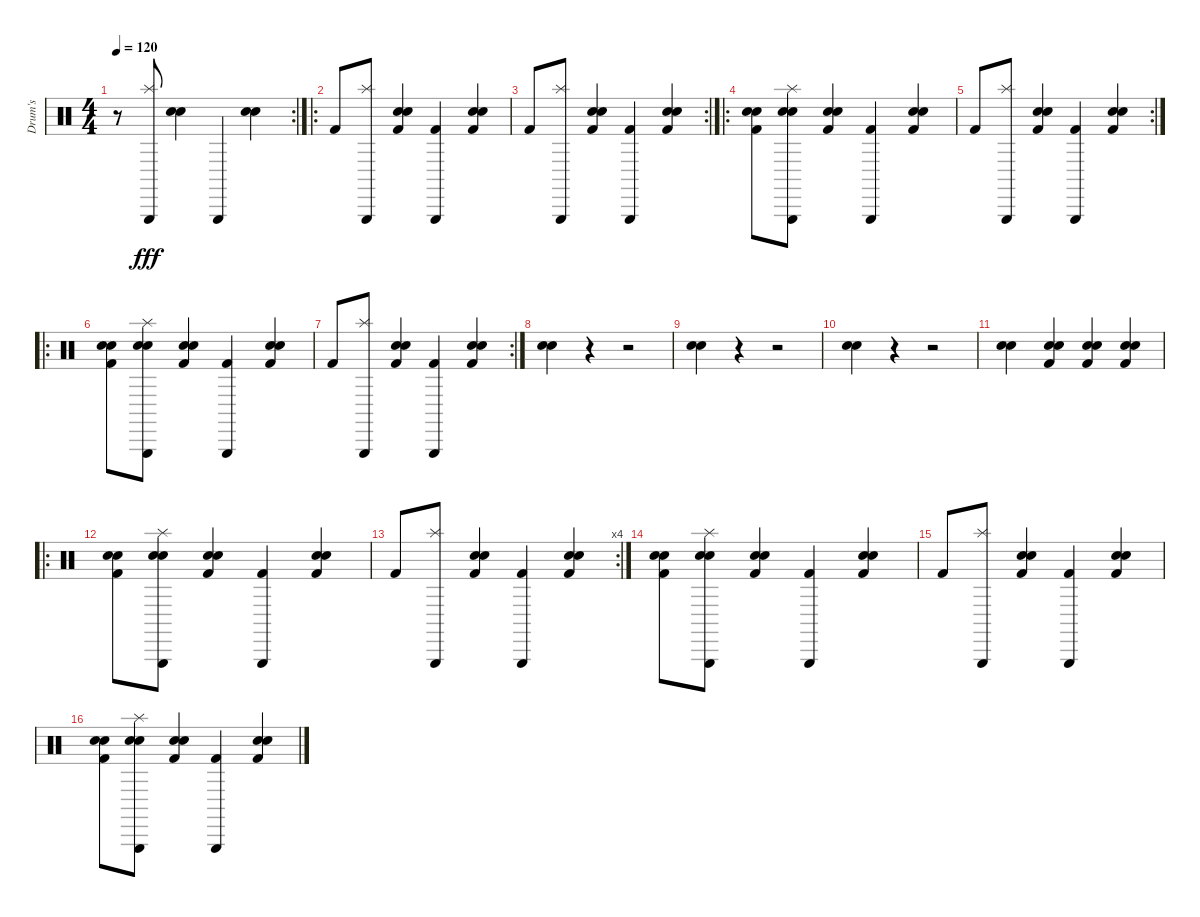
\track ("Drum's" "Drum's") {instrument percussion}
\staff {score}
\articulation defaults
\rc 2
\ts (4 4)
\tempo 120
\clef neutral
\ks c
r.8{dy fff} ("Splash (hit)" "Triangle (hit)").8 ("Hand Clap (hit)" "Snare (hit) 2").4 "Triangle (hit)".4 ("Hand Clap (hit)" "Snare (hit) 2").4 |
\ro "Kick (hit) 2".8
("Splash (hit)" "Triangle (hit)").8 ("Hand Clap (hit)" "Snare (hit) 2" "Kick (hit) 2").4 ("Triangle (hit)" "Kick (hit) 2").4 ("Hand Clap (hit)" "Snare (hit) 2" "Kick (hit) 2").4 |
\rc 2 "Kick (hit) 2".8
("Splash (hit)" "Triangle (hit)").8 ("Hand Clap (hit)" "Snare (hit) 2" "Kick (hit) 2").4 ("Triangle (hit)" "Kick (hit) 2").4 ("Hand Clap (hit)" "Snare (hit) 2" "Kick (hit) 2").4 |
\ro
("Hand Clap (hit)" "Snare (hit) 2" "Kick (hit) 2").8 ("Splash (hit)" "Triangle (hit)" "Hand Clap (hit)" "Snare (hit) 2").8 ("Hand Clap (hit)" "Snare (hit) 2" "Kick (hit) 2").4 ("Triangle (hit)" "Kick (hit) 2").4 ("Hand Clap (hit)" "Snare (hit) 2" "Kick (hit) 2").4 |
\rc 2 "Kick (hit) 2".8
("Splash (hit)" "Triangle (hit)").8 ("Hand Clap (hit)" "Snare (hit) 2" "Kick (hit) 2").4 ("Triangle (hit)" "Kick (hit) 2").4 ("Hand Clap (hit)" "Snare (hit) 2" "Kick (hit) 2").4 |
\ro
("Hand Clap (hit)" "Snare (hit) 2" "Kick (hit) 2").8 ("Splash (hit)" "Triangle (hit)" "Hand Clap (hit)" "Snare (hit) 2").8 ("Hand Clap (hit)" "Snare (hit) 2" "Kick (hit) 2").4 ("Triangle (hit)" "Kick (hit) 2").4 ("Hand Clap (hit)" "Snare (hit) 2" "Kick (hit) 2").4 |
\rc 2 "Kick (hit) 2".8
("Splash (hit)" "Triangle (hit)").8 ("Hand Clap (hit)" "Snare (hit) 2" "Kick (hit) 2").4 ("Triangle (hit)" "Kick (hit) 2").4 ("Hand Clap (hit)" "Snare (hit) 2" "Kick (hit) 2").4 |
("Hand Clap (hit)" "Snare (hit) 2").4 r.4 r.2 |
("Hand Clap (hit)" "Snare (hit) 2").4 r.4 r.2 |
("Hand Clap (hit)" "Snare (hit) 2").4 r.4 r.2 |
("Hand Clap (hit)" "Snare (hit) 2").4 ("Hand Clap (hit)" "Snare (hit) 2" "Kick (hit) 2").4 ("Hand Clap (hit)" "Snare (hit) 2" "Kick (hit) 2").4 ("Hand Clap (hit)" "Snare (hit) 2" "Kick (hit) 2").4 |
\ro
("Hand Clap (hit)" "Snare (hit) 2" "Kick (hit) 2").8 ("Splash (hit)" "Triangle (hit)" "Hand Clap (hit)" "Snare (hit) 2").8 ("Hand Clap (hit)" "Snare (hit) 2" "Kick (hit) 2").4 ("Triangle (hit)" "Kick (hit) 2").4 ("Hand Clap (hit)" "Snare (hit) 2" "Kick (hit) 2").4 |
\rc 4 "Kick (hit) 2".8
("Splash (hit)" "Triangle (hit)").8 ("Hand Clap (hit)" "Snare (hit) 2" "Kick (hit) 2").4 ("Triangle (hit)" "Kick (hit) 2").4 ("Hand Clap (hit)" "Snare (hit) 2" "Kick (hit) 2").4 |
("Hand Clap (hit)" "Snare (hit) 2" "Kick (hit) 2").8 ("Splash (hit)" "Triangle (hit)" "Hand Clap (hit)" "Snare (hit) 2").8 ("Hand Clap (hit)" "Snare (hit) 2" "Kick (hit) 2").4 ("Triangle (hit)" "Kick (hit) 2").4 ("Hand Clap (hit)" "Snare (hit) 2" "Kick (hit) 2").4 |
"Kick (hit) 2".8 ("Splash (hit)" "Triangle (hit)").8 ("Hand Clap (hit)" "Snare (hit) 2" "Kick (hit) 2").4 ("Triangle (hit)" "Kick (hit) 2").4 ("Hand Clap (hit)" "Snare (hit) 2" "Kick (hit) 2").4 |
("Hand Clap (hit)" "Snare (hit) 2" "Kick (hit) 2").8 ("Splash (hit)" "Triangle (hit)" "Hand Clap (hit)" "Snare (hit) 2").8 ("Hand Clap (hit)" "Snare (hit) 2" "Kick (hit) 2").4 ("Triangle (hit)" "Kick (hit) 2").4 ("Hand Clap (hit)" "Snare (hit) 2" "Kick (hit) 2").4
